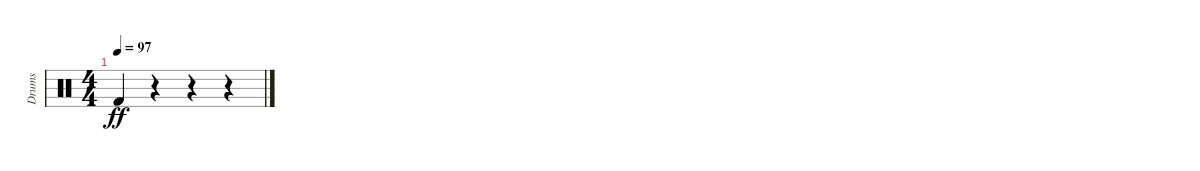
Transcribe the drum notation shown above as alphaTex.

\track ("Drums" "Drums") {instrument percussion}
\staff {score}
\articulation defaults
\ts (4 4)
\tempo 97
\clef neutral
\ks c "Kick (hit) 2".4{dy ff}
r.4 r.4 r.4
